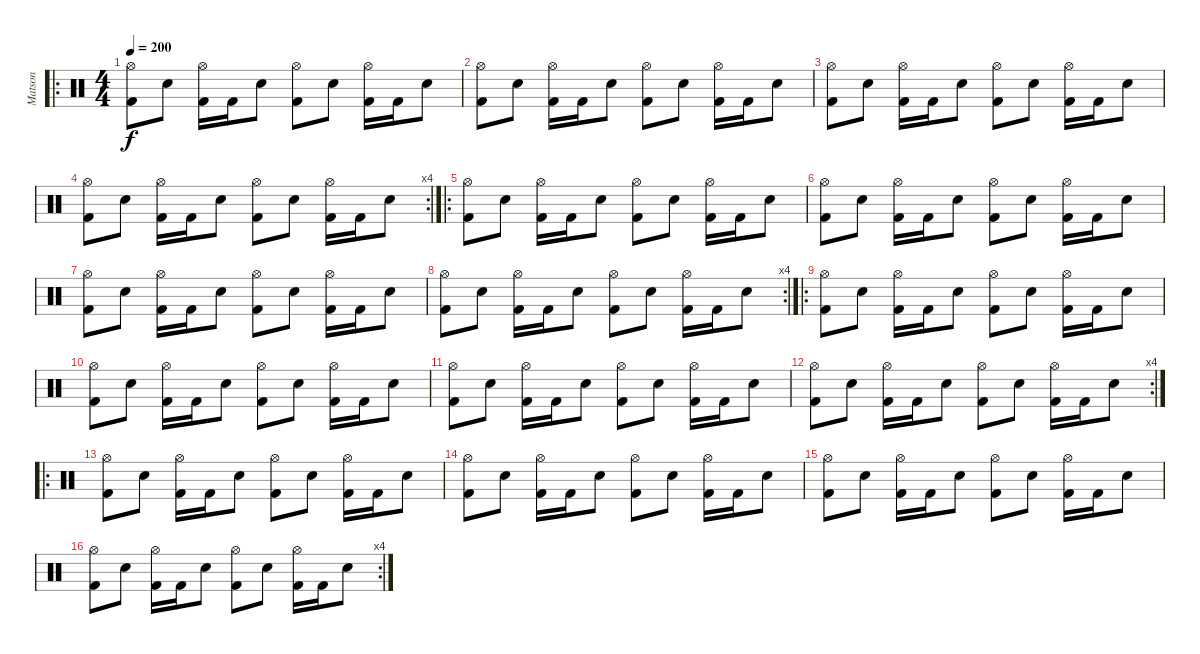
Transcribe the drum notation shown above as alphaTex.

\track ("Matson" "Matson") {instrument percussion}
\staff {score}
\articulation defaults
\ro
\ts (4 4)
\tempo 200
\clef neutral
\ks c
("Hi-Hat (open)" "Kick (hit) 2").8{dy f} "Electric Snare (hit)".8 ("Hi-Hat (open)" "Kick (hit) 2").16 "Kick (hit) 2".16 "Electric Snare (hit)".8 ("Hi-Hat (open)" "Kick (hit) 2").8 "Electric Snare (hit)".8 ("Hi-Hat (open)" "Kick (hit) 2").16 "Kick (hit) 2".16 "Electric Snare (hit)".8 |
("Hi-Hat (open)" "Kick (hit) 2").8 "Electric Snare (hit)".8 ("Hi-Hat (open)" "Kick (hit) 2").16 "Kick (hit) 2".16 "Electric Snare (hit)".8 ("Hi-Hat (open)" "Kick (hit) 2").8 "Electric Snare (hit)".8 ("Hi-Hat (open)" "Kick (hit) 2").16 "Kick (hit) 2".16 "Electric Snare (hit)".8 |
("Hi-Hat (open)" "Kick (hit) 2").8 "Electric Snare (hit)".8 ("Hi-Hat (open)" "Kick (hit) 2").16 "Kick (hit) 2".16 "Electric Snare (hit)".8 ("Hi-Hat (open)" "Kick (hit) 2").8 "Electric Snare (hit)".8 ("Hi-Hat (open)" "Kick (hit) 2").16 "Kick (hit) 2".16 "Electric Snare (hit)".8 |
\rc 4
("Hi-Hat (open)" "Kick (hit) 2").8 "Electric Snare (hit)".8 ("Hi-Hat (open)" "Kick (hit) 2").16 "Kick (hit) 2".16 "Electric Snare (hit)".8 ("Hi-Hat (open)" "Kick (hit) 2").8 "Electric Snare (hit)".8 ("Hi-Hat (open)" "Kick (hit) 2").16 "Kick (hit) 2".16 "Electric Snare (hit)".8 |
\ro
("Hi-Hat (open)" "Kick (hit) 2").8 "Electric Snare (hit)".8 ("Hi-Hat (open)" "Kick (hit) 2").16 "Kick (hit) 2".16 "Electric Snare (hit)".8 ("Hi-Hat (open)" "Kick (hit) 2").8 "Electric Snare (hit)".8 ("Hi-Hat (open)" "Kick (hit) 2").16 "Kick (hit) 2".16 "Electric Snare (hit)".8 |
("Hi-Hat (open)" "Kick (hit) 2").8 "Electric Snare (hit)".8 ("Hi-Hat (open)" "Kick (hit) 2").16 "Kick (hit) 2".16 "Electric Snare (hit)".8 ("Hi-Hat (open)" "Kick (hit) 2").8 "Electric Snare (hit)".8 ("Hi-Hat (open)" "Kick (hit) 2").16 "Kick (hit) 2".16 "Electric Snare (hit)".8 |
("Hi-Hat (open)" "Kick (hit) 2").8 "Electric Snare (hit)".8 ("Hi-Hat (open)" "Kick (hit) 2").16 "Kick (hit) 2".16 "Electric Snare (hit)".8 ("Hi-Hat (open)" "Kick (hit) 2").8 "Electric Snare (hit)".8 ("Hi-Hat (open)" "Kick (hit) 2").16 "Kick (hit) 2".16 "Electric Snare (hit)".8 |
\rc 4
("Hi-Hat (open)" "Kick (hit) 2").8 "Electric Snare (hit)".8 ("Hi-Hat (open)" "Kick (hit) 2").16 "Kick (hit) 2".16 "Electric Snare (hit)".8 ("Hi-Hat (open)" "Kick (hit) 2").8 "Electric Snare (hit)".8 ("Hi-Hat (open)" "Kick (hit) 2").16 "Kick (hit) 2".16 "Electric Snare (hit)".8 |
\ro
("Hi-Hat (open)" "Kick (hit) 2").8 "Electric Snare (hit)".8 ("Hi-Hat (open)" "Kick (hit) 2").16 "Kick (hit) 2".16 "Electric Snare (hit)".8 ("Hi-Hat (open)" "Kick (hit) 2").8 "Electric Snare (hit)".8 ("Hi-Hat (open)" "Kick (hit) 2").16 "Kick (hit) 2".16 "Electric Snare (hit)".8 |
("Hi-Hat (open)" "Kick (hit) 2").8 "Electric Snare (hit)".8 ("Hi-Hat (open)" "Kick (hit) 2").16 "Kick (hit) 2".16 "Electric Snare (hit)".8 ("Hi-Hat (open)" "Kick (hit) 2").8 "Electric Snare (hit)".8 ("Hi-Hat (open)" "Kick (hit) 2").16 "Kick (hit) 2".16 "Electric Snare (hit)".8 |
("Hi-Hat (open)" "Kick (hit) 2").8 "Electric Snare (hit)".8 ("Hi-Hat (open)" "Kick (hit) 2").16 "Kick (hit) 2".16 "Electric Snare (hit)".8 ("Hi-Hat (open)" "Kick (hit) 2").8 "Electric Snare (hit)".8 ("Hi-Hat (open)" "Kick (hit) 2").16 "Kick (hit) 2".16 "Electric Snare (hit)".8 |
\rc 4
("Hi-Hat (open)" "Kick (hit) 2").8 "Electric Snare (hit)".8 ("Hi-Hat (open)" "Kick (hit) 2").16 "Kick (hit) 2".16 "Electric Snare (hit)".8 ("Hi-Hat (open)" "Kick (hit) 2").8 "Electric Snare (hit)".8 ("Hi-Hat (open)" "Kick (hit) 2").16 "Kick (hit) 2".16 "Electric Snare (hit)".8 |
\ro
("Hi-Hat (open)" "Kick (hit) 2").8 "Electric Snare (hit)".8 ("Hi-Hat (open)" "Kick (hit) 2").16 "Kick (hit) 2".16 "Electric Snare (hit)".8 ("Hi-Hat (open)" "Kick (hit) 2").8 "Electric Snare (hit)".8 ("Hi-Hat (open)" "Kick (hit) 2").16 "Kick (hit) 2".16 "Electric Snare (hit)".8 |
("Hi-Hat (open)" "Kick (hit) 2").8 "Electric Snare (hit)".8 ("Hi-Hat (open)" "Kick (hit) 2").16 "Kick (hit) 2".16 "Electric Snare (hit)".8 ("Hi-Hat (open)" "Kick (hit) 2").8 "Electric Snare (hit)".8 ("Hi-Hat (open)" "Kick (hit) 2").16 "Kick (hit) 2".16 "Electric Snare (hit)".8 |
("Hi-Hat (open)" "Kick (hit) 2").8 "Electric Snare (hit)".8 ("Hi-Hat (open)" "Kick (hit) 2").16 "Kick (hit) 2".16 "Electric Snare (hit)".8 ("Hi-Hat (open)" "Kick (hit) 2").8 "Electric Snare (hit)".8 ("Hi-Hat (open)" "Kick (hit) 2").16 "Kick (hit) 2".16 "Electric Snare (hit)".8 |
\rc 4
("Hi-Hat (open)" "Kick (hit) 2").8 "Electric Snare (hit)".8 ("Hi-Hat (open)" "Kick (hit) 2").16 "Kick (hit) 2".16 "Electric Snare (hit)".8 ("Hi-Hat (open)" "Kick (hit) 2").8 "Electric Snare (hit)".8 ("Hi-Hat (open)" "Kick (hit) 2").16 "Kick (hit) 2".16 "Electric Snare (hit)".8
